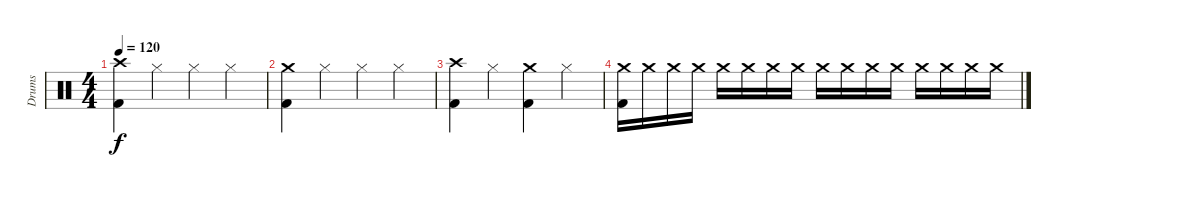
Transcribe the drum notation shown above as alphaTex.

\track ("Drums" "Drums") {instrument percussion}
\staff {score}
\articulation defaults
\ts (4 4)
\tempo 120
\clef neutral
\ks c
("Crash high (hit)" "Kick (hit) 2").4{dy f} "Hi-Hat (closed)".4 "Hi-Hat (closed)".4 "Hi-Hat (closed)".4 |
("Crash medium (hit)" "Kick (hit) 2").4 "Hi-Hat (closed)".4 "Hi-Hat (closed)".4 "Hi-Hat (closed)".4 |
("Crash high (hit)" "Kick (hit) 2").4 "Hi-Hat (closed)".4 ("Crash medium (hit)" "Kick (hit) 2").4 "Hi-Hat (closed)".4 |
("Crash medium (hit)" "Kick (hit) 2").16 "Crash medium (hit)".16 "Crash medium (hit)".16 "Crash medium (hit)".16 "Crash medium (hit)".16 "Crash medium (hit)".16 "Crash medium (hit)".16 "Crash medium (hit)".16 "Crash medium (hit)".16 "Crash medium (hit)".16 "Crash medium (hit)".16 "Crash medium (hit)".16 "Crash medium (hit)".16 "Crash medium (hit)".16 "Crash medium (hit)".16 "Crash medium (hit)".16
